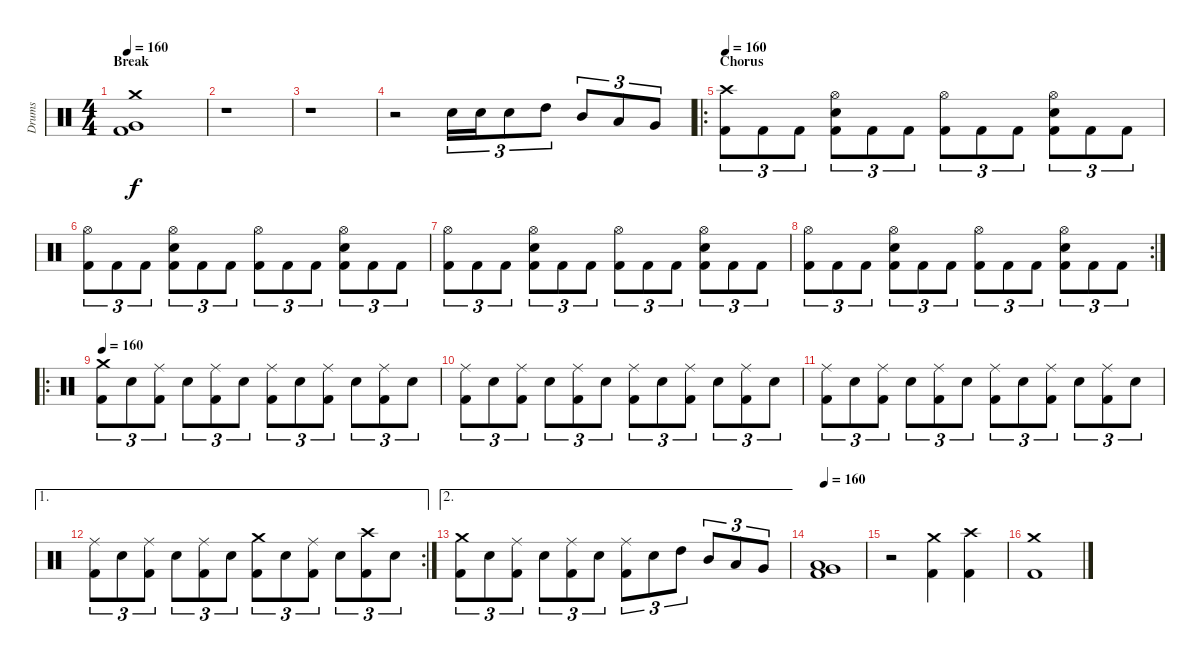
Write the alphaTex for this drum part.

\track ("Drums" "Drums") {instrument percussion}
\staff {score}
\articulation defaults
\ts (4 4)
\section ("" "Break")
\tempo 160
\clef neutral
\ks c
("Kick (hit) 2" "Very Low Tom (hit)" "Crash medium (hit)").1{dy f} |
r.1 |
r.1 |
r.2 "Electric Snare (hit)".16{tu (3 2)} "Electric Snare (hit)".16{tu (3 2)} "Electric Snare (hit)".8{tu (3 2)} "High Tom (hit)".8{tu (3 2)} "Mid Tom (hit)".8{tu (3 2)} "Low Tom (hit)".8{tu (3 2)} "Very Low Tom (hit)".8{tu (3 2)} |
\ro
\section ("" "Chorus")
\tempo 160
("Kick (hit) 2" "Crash high (hit)").8{tu (3 2)} "Kick (hit) 2".8{tu (3 2)} "Kick (hit) 2".8{tu (3 2)} ("Kick (hit) 2" "Electric Snare (hit)" "Hi-Hat (open)").8{tu (3 2)} "Kick (hit) 2".8{tu (3 2)} "Kick (hit) 2".8{tu (3 2)} ("Kick (hit) 2" "Hi-Hat (open)").8{tu (3 2)} "Kick (hit) 2".8{tu (3 2)} "Kick (hit) 2".8{tu (3 2)} ("Kick (hit) 2" "Electric Snare (hit)" "Hi-Hat (open)").8{tu (3 2)} "Kick (hit) 2".8{tu (3 2)} "Kick (hit) 2".8{tu (3 2)} |
("Kick (hit) 2" "Hi-Hat (open)").8{tu (3 2)} "Kick (hit) 2".8{tu (3 2)} "Kick (hit) 2".8{tu (3 2)} ("Kick (hit) 2" "Electric Snare (hit)" "Hi-Hat (open)").8{tu (3 2)} "Kick (hit) 2".8{tu (3 2)} "Kick (hit) 2".8{tu (3 2)} ("Kick (hit) 2" "Hi-Hat (open)").8{tu (3 2)} "Kick (hit) 2".8{tu (3 2)} "Kick (hit) 2".8{tu (3 2)} ("Kick (hit) 2" "Electric Snare (hit)" "Hi-Hat (open)").8{tu (3 2)} "Kick (hit) 2".8{tu (3 2)} "Kick (hit) 2".8{tu (3 2)} |
("Kick (hit) 2" "Hi-Hat (open)").8{tu (3 2)} "Kick (hit) 2".8{tu (3 2)} "Kick (hit) 2".8{tu (3 2)} ("Kick (hit) 2" "Electric Snare (hit)" "Hi-Hat (open)").8{tu (3 2)} "Kick (hit) 2".8{tu (3 2)} "Kick (hit) 2".8{tu (3 2)} ("Kick (hit) 2" "Hi-Hat (open)").8{tu (3 2)} "Kick (hit) 2".8{tu (3 2)} "Kick (hit) 2".8{tu (3 2)} ("Kick (hit) 2" "Electric Snare (hit)" "Hi-Hat (open)").8{tu (3 2)} "Kick (hit) 2".8{tu (3 2)} "Kick (hit) 2".8{tu (3 2)} |
\rc 2
("Kick (hit) 2" "Hi-Hat (open)").8{tu (3 2)} "Kick (hit) 2".8{tu (3 2)} "Kick (hit) 2".8{tu (3 2)} ("Kick (hit) 2" "Electric Snare (hit)" "Hi-Hat (open)").8{tu (3 2)} "Kick (hit) 2".8{tu (3 2)} "Kick (hit) 2".8{tu (3 2)} ("Kick (hit) 2" "Hi-Hat (open)").8{tu (3 2)} "Kick (hit) 2".8{tu (3 2)} "Kick (hit) 2".8{tu (3 2)} ("Kick (hit) 2" "Electric Snare (hit)" "Hi-Hat (open)").8{tu (3 2)} "Kick (hit) 2".8{tu (3 2)} "Kick (hit) 2".8{tu (3 2)} |
\ro
\tempo 160
("Kick (hit) 2" "Crash medium (hit)").8{tu (3 2)} "Electric Snare (hit)".8{tu (3 2)} ("Kick (hit) 2" "Ride (middle)").8{tu (3 2)} "Electric Snare (hit)".8{tu (3 2)} ("Kick (hit) 2" "Ride (middle)").8{tu (3 2)} "Electric Snare (hit)".8{tu (3 2)} ("Kick (hit) 2" "Ride (middle)").8{tu (3 2)} "Electric Snare (hit)".8{tu (3 2)} ("Kick (hit) 2" "Ride (middle)").8{tu (3 2)} "Electric Snare (hit)".8{tu (3 2)} ("Kick (hit) 2" "Ride (middle)").8{tu (3 2)} "Electric Snare (hit)".8{tu (3 2)} |
("Kick (hit) 2" "Ride (middle)").8{tu (3 2)} "Electric Snare (hit)".8{tu (3 2)} ("Kick (hit) 2" "Ride (middle)").8{tu (3 2)} "Electric Snare (hit)".8{tu (3 2)} ("Kick (hit) 2" "Ride (middle)").8{tu (3 2)} "Electric Snare (hit)".8{tu (3 2)} ("Kick (hit) 2" "Ride (middle)").8{tu (3 2)} "Electric Snare (hit)".8{tu (3 2)} ("Kick (hit) 2" "Ride (middle)").8{tu (3 2)} "Electric Snare (hit)".8{tu (3 2)} ("Kick (hit) 2" "Ride (middle)").8{tu (3 2)} "Electric Snare (hit)".8{tu (3 2)} |
("Kick (hit) 2" "Ride (middle)").8{tu (3 2)} "Electric Snare (hit)".8{tu (3 2)} ("Kick (hit) 2" "Ride (middle)").8{tu (3 2)} "Electric Snare (hit)".8{tu (3 2)} ("Kick (hit) 2" "Ride (middle)").8{tu (3 2)} "Electric Snare (hit)".8{tu (3 2)} ("Kick (hit) 2" "Ride (middle)").8{tu (3 2)} "Electric Snare (hit)".8{tu (3 2)} ("Kick (hit) 2" "Ride (middle)").8{tu (3 2)} "Electric Snare (hit)".8{tu (3 2)} ("Kick (hit) 2" "Ride (middle)").8{tu (3 2)} "Electric Snare (hit)".8{tu (3 2)} |
\ae 1
\rc 2
("Kick (hit) 2" "Ride (middle)").8{tu (3 2)} "Electric Snare (hit)".8{tu (3 2)} ("Kick (hit) 2" "Ride (middle)").8{tu (3 2)} "Electric Snare (hit)".8{tu (3 2)} ("Kick (hit) 2" "Ride (middle)").8{tu (3 2)} "Electric Snare (hit)".8{tu (3 2)} ("Kick (hit) 2" "Crash medium (hit)").8{tu (3 2)} "Electric Snare (hit)".8{tu (3 2)} ("Kick (hit) 2" "Ride (middle)").8{tu (3 2)} "Electric Snare (hit)".8{tu (3 2)} ("Kick (hit) 2" "Crash high (hit)").8{tu (3 2)} "Electric Snare (hit)".8{tu (3 2)} |
\ae 2
("Kick (hit) 2" "Crash medium (hit)").8{tu (3 2)} "Electric Snare (hit)".8{tu (3 2)} ("Kick (hit) 2" "Ride (middle)").8{tu (3 2)} "Electric Snare (hit)".8{tu (3 2)} ("Kick (hit) 2" "Ride (middle)").8{tu (3 2)} "Electric Snare (hit)".8{tu (3 2)} ("Kick (hit) 2" "Ride (middle)").8{tu (3 2)} "Electric Snare (hit)".8{tu (3 2)} "High Tom (hit)".8{tu (3 2)} "Mid Tom (hit)".8{tu (3 2)} "Low Tom (hit)".8{tu (3 2)} "Very Low Tom (hit)".8{tu (3 2)} |
\tempo 160
("Kick (hit) 2" "Very Low Tom (hit)" "Low Tom (hit)").1 |
r.2 ("Kick (hit) 2" "Crash medium (hit)").4 ("Kick (hit) 2" "Crash high (hit)").4 |
("Kick (hit) 2" "Crash medium (hit)").1
